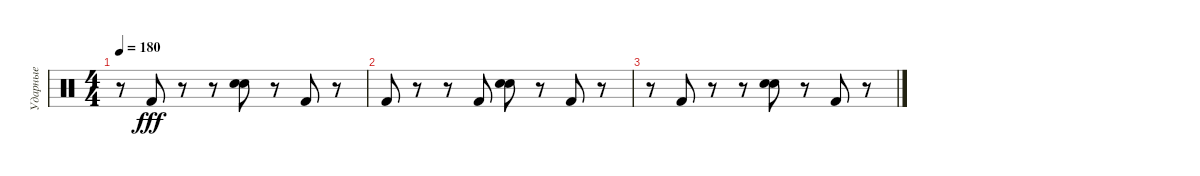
\track ("Ударные" "Ударные") {instrument percussion}
\staff {score}
\articulation defaults
\ts (4 4)
\tempo 180
\clef neutral
\ks c
r.8{dy fff} "Kick (hit) 2".8 r.8 r.8 ("Snare (hit) 2" "Electric Snare (hit)").8 r.8 "Kick (hit) 2".8 r.8 |
"Kick (hit) 2".8 r.8 r.8 "Kick (hit) 2".8 ("Snare (hit) 2" "Electric Snare (hit)").8 r.8 "Kick (hit) 2".8 r.8 |
r.8 "Kick (hit) 2".8 r.8 r.8 ("Snare (hit) 2" "Electric Snare (hit)").8 r.8 "Kick (hit) 2".8 r.8
